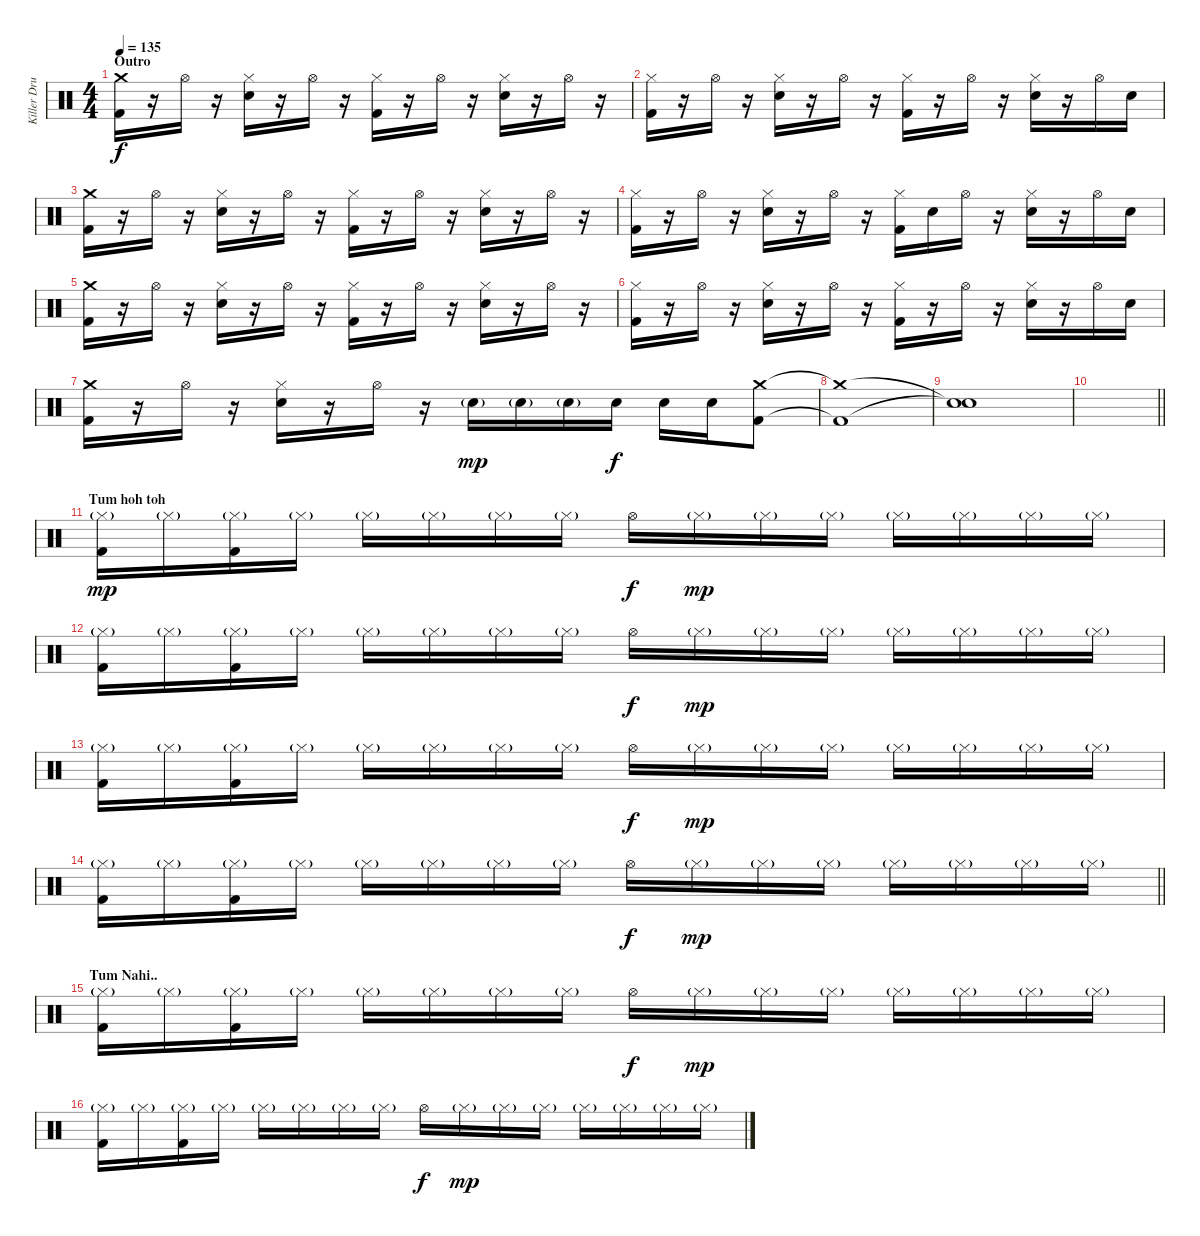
\track ("Killer Drummer" "Killer Dru") {instrument percussion}
\staff {score}
\articulation defaults
\ts (4 4)
\section ("" "Outro")
\tempo 135
\clef neutral
\ks c
("Crash medium (hit)" "Kick (hit) 2").16{dy f} r.16 "Hi-Hat (open)".16 r.16 ("Hi-Hat (closed)" "Electric Snare (hit)").16 r.16 "Hi-Hat (open)".16 r.16 ("Hi-Hat (closed)" "Kick (hit) 2").16 r.16 "Hi-Hat (open)".16 r.16 ("Hi-Hat (closed)" "Electric Snare (hit)").16 r.16 "Hi-Hat (open)".16 r.16 |
("Hi-Hat (closed)" "Kick (hit) 2").16 r.16 "Hi-Hat (open)".16 r.16 ("Hi-Hat (closed)" "Electric Snare (hit)").16 r.16 "Hi-Hat (open)".16 r.16 ("Hi-Hat (closed)" "Kick (hit) 2").16 r.16 "Hi-Hat (open)".16 r.16 ("Hi-Hat (closed)" "Electric Snare (hit)").16 r.16 "Hi-Hat (open)".16 "Electric Snare (hit)".16 |
("Crash medium (hit)" "Kick (hit) 2").16 r.16 "Hi-Hat (open)".16 r.16 ("Hi-Hat (closed)" "Electric Snare (hit)").16 r.16 "Hi-Hat (open)".16 r.16 ("Hi-Hat (closed)" "Kick (hit) 2").16 r.16 "Hi-Hat (open)".16 r.16 ("Hi-Hat (closed)" "Electric Snare (hit)").16 r.16 "Hi-Hat (open)".16 r.16 |
("Hi-Hat (closed)" "Kick (hit) 2").16 r.16 "Hi-Hat (open)".16 r.16 ("Hi-Hat (closed)" "Electric Snare (hit)").16 r.16 "Hi-Hat (open)".16 r.16 ("Hi-Hat (closed)" "Kick (hit) 2").16 "Electric Snare (hit)".16 "Hi-Hat (open)".16 r.16 ("Hi-Hat (closed)" "Electric Snare (hit)").16 r.16 "Hi-Hat (open)".16 "Electric Snare (hit)".16 |
("Crash medium (hit)" "Kick (hit) 2").16 r.16 "Hi-Hat (open)".16 r.16 ("Hi-Hat (closed)" "Electric Snare (hit)").16 r.16 "Hi-Hat (open)".16 r.16 ("Hi-Hat (closed)" "Kick (hit) 2").16 r.16 "Hi-Hat (open)".16 r.16 ("Hi-Hat (closed)" "Electric Snare (hit)").16 r.16 "Hi-Hat (open)".16 r.16 |
("Hi-Hat (closed)" "Kick (hit) 2").16 r.16 "Hi-Hat (open)".16 r.16 ("Hi-Hat (closed)" "Electric Snare (hit)").16 r.16 "Hi-Hat (open)".16 r.16 ("Hi-Hat (closed)" "Kick (hit) 2").16 r.16 "Hi-Hat (open)".16 r.16 ("Hi-Hat (closed)" "Electric Snare (hit)").16 r.16 "Hi-Hat (open)".16 "Electric Snare (hit)".16 |
("Crash medium (hit)" "Kick (hit) 2").16 r.16 "Hi-Hat (open)".16 r.16 ("Hi-Hat (closed)" "Electric Snare (hit)").16 r.16 "Hi-Hat (open)".16 r.16 "Electric Snare (hit)"{g}.16{dy mp} "Electric Snare (hit)"{g}.16 "Electric Snare (hit)"{g}.16 "Electric Snare (hit)".16{dy f} "Electric Snare (hit)".16 "Electric Snare (hit)".16 ("Crash medium (hit)" "Kick (hit) 2").8 |
("Crash medium (hit)"{t} "Kick (hit) 2"{t}).1 |
("Snare (hit)"{t} "Snare (hit)"{t}).1 |
\barLineRight lightlight
|
\section ("" "Tum hoh toh")
("Hi-Hat (closed)"{g} "Kick (hit) 2").16{dy mp} "Hi-Hat (closed)"{g}.16 ("Hi-Hat (closed)"{g} "Kick (hit) 2").16 "Hi-Hat (closed)"{g}.16 "Hi-Hat (closed)"{g}.16 "Hi-Hat (closed)"{g}.16 "Hi-Hat (closed)"{g}.16 "Hi-Hat (closed)"{g}.16 "Hi-Hat (open)".16{dy f} "Hi-Hat (closed)"{g}.16{dy mp} "Hi-Hat (closed)"{g}.16 "Hi-Hat (closed)"{g}.16 "Hi-Hat (closed)"{g}.16 "Hi-Hat (closed)"{g}.16 "Hi-Hat (closed)"{g}.16 "Hi-Hat (closed)"{g}.16 |
("Hi-Hat (closed)"{g} "Kick (hit) 2").16 "Hi-Hat (closed)"{g}.16 ("Hi-Hat (closed)"{g} "Kick (hit) 2").16 "Hi-Hat (closed)"{g}.16 "Hi-Hat (closed)"{g}.16 "Hi-Hat (closed)"{g}.16 "Hi-Hat (closed)"{g}.16 "Hi-Hat (closed)"{g}.16 "Hi-Hat (open)".16{dy f} "Hi-Hat (closed)"{g}.16{dy mp} "Hi-Hat (closed)"{g}.16 "Hi-Hat (closed)"{g}.16 "Hi-Hat (closed)"{g}.16 "Hi-Hat (closed)"{g}.16 "Hi-Hat (closed)"{g}.16 "Hi-Hat (closed)"{g}.16 |
("Hi-Hat (closed)"{g} "Kick (hit) 2").16 "Hi-Hat (closed)"{g}.16 ("Hi-Hat (closed)"{g} "Kick (hit) 2").16 "Hi-Hat (closed)"{g}.16 "Hi-Hat (closed)"{g}.16 "Hi-Hat (closed)"{g}.16 "Hi-Hat (closed)"{g}.16 "Hi-Hat (closed)"{g}.16 "Hi-Hat (open)".16{dy f} "Hi-Hat (closed)"{g}.16{dy mp} "Hi-Hat (closed)"{g}.16 "Hi-Hat (closed)"{g}.16 "Hi-Hat (closed)"{g}.16 "Hi-Hat (closed)"{g}.16 "Hi-Hat (closed)"{g}.16 "Hi-Hat (closed)"{g}.16 |
\barLineRight lightlight
("Hi-Hat (closed)"{g} "Kick (hit) 2").16 "Hi-Hat (closed)"{g}.16 ("Hi-Hat (closed)"{g} "Kick (hit) 2").16 "Hi-Hat (closed)"{g}.16 "Hi-Hat (closed)"{g}.16 "Hi-Hat (closed)"{g}.16 "Hi-Hat (closed)"{g}.16 "Hi-Hat (closed)"{g}.16 "Hi-Hat (open)".16{dy f} "Hi-Hat (closed)"{g}.16{dy mp} "Hi-Hat (closed)"{g}.16 "Hi-Hat (closed)"{g}.16 "Hi-Hat (closed)"{g}.16 "Hi-Hat (closed)"{g}.16 "Hi-Hat (closed)"{g}.16 "Hi-Hat (closed)"{g}.16 |
\section ("" "Tum Nahi..")
("Hi-Hat (closed)"{g} "Kick (hit) 2").16 "Hi-Hat (closed)"{g}.16 ("Hi-Hat (closed)"{g} "Kick (hit) 2").16 "Hi-Hat (closed)"{g}.16 "Hi-Hat (closed)"{g}.16 "Hi-Hat (closed)"{g}.16 "Hi-Hat (closed)"{g}.16 "Hi-Hat (closed)"{g}.16 "Hi-Hat (open)".16{dy f} "Hi-Hat (closed)"{g}.16{dy mp} "Hi-Hat (closed)"{g}.16 "Hi-Hat (closed)"{g}.16 "Hi-Hat (closed)"{g}.16 "Hi-Hat (closed)"{g}.16 "Hi-Hat (closed)"{g}.16 "Hi-Hat (closed)"{g}.16 |
("Hi-Hat (closed)"{g} "Kick (hit) 2").16 "Hi-Hat (closed)"{g}.16 ("Hi-Hat (closed)"{g} "Kick (hit) 2").16 "Hi-Hat (closed)"{g}.16 "Hi-Hat (closed)"{g}.16 "Hi-Hat (closed)"{g}.16 "Hi-Hat (closed)"{g}.16 "Hi-Hat (closed)"{g}.16 "Hi-Hat (open)".16{dy f} "Hi-Hat (closed)"{g}.16{dy mp} "Hi-Hat (closed)"{g}.16 "Hi-Hat (closed)"{g}.16 "Hi-Hat (closed)"{g}.16 "Hi-Hat (closed)"{g}.16 "Hi-Hat (closed)"{g}.16 "Hi-Hat (closed)"{g}.16
